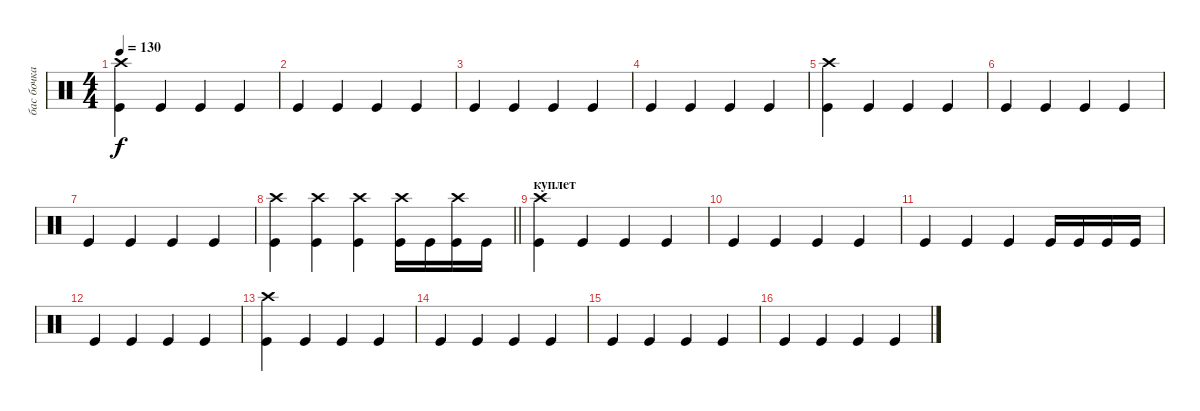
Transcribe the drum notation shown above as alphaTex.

\track ("бас бочка" "бас бочка") {instrument percussion}
\staff {score}
\articulation defaults
\ts (4 4)
\tempo 130
\clef neutral
\ks c
("Crash high (hit)" "Kick (hit)").4{dy f} "Kick (hit)".4 "Kick (hit)".4 "Kick (hit)".4 |
"Kick (hit)".4 "Kick (hit)".4 "Kick (hit)".4 "Kick (hit)".4 |
"Kick (hit)".4 "Kick (hit)".4 "Kick (hit)".4 "Kick (hit)".4 |
"Kick (hit)".4 "Kick (hit)".4 "Kick (hit)".4 "Kick (hit)".4 |
("Crash high (hit)" "Kick (hit)").4 "Kick (hit)".4 "Kick (hit)".4 "Kick (hit)".4 |
"Kick (hit)".4 "Kick (hit)".4 "Kick (hit)".4 "Kick (hit)".4 |
"Kick (hit)".4 "Kick (hit)".4 "Kick (hit)".4 "Kick (hit)".4 |
\barLineRight lightlight
("Crash high (hit)" "Kick (hit)").4 ("Crash high (hit)" "Kick (hit)").4 ("Crash high (hit)" "Kick (hit)").4 ("Crash high (hit)" "Kick (hit)").16 "Kick (hit)".16 ("Crash high (hit)" "Kick (hit)").16 "Kick (hit)".16 |
\section ("" "куплет")
("Crash high (hit)" "Kick (hit)").4 "Kick (hit)".4 "Kick (hit)".4 "Kick (hit)".4 |
"Kick (hit)".4 "Kick (hit)".4 "Kick (hit)".4 "Kick (hit)".4 |
"Kick (hit)".4 "Kick (hit)".4 "Kick (hit)".4 "Kick (hit)".16 "Kick (hit)".16 "Kick (hit)".16 "Kick (hit)".16 |
"Kick (hit)".4 "Kick (hit)".4 "Kick (hit)".4 "Kick (hit)".4 |
("Crash high (hit)" "Kick (hit)").4 "Kick (hit)".4 "Kick (hit)".4 "Kick (hit)".4 |
"Kick (hit)".4 "Kick (hit)".4 "Kick (hit)".4 "Kick (hit)".4 |
"Kick (hit)".4 "Kick (hit)".4 "Kick (hit)".4 "Kick (hit)".4 |
"Kick (hit)".4 "Kick (hit)".4 "Kick (hit)".4 "Kick (hit)".4
